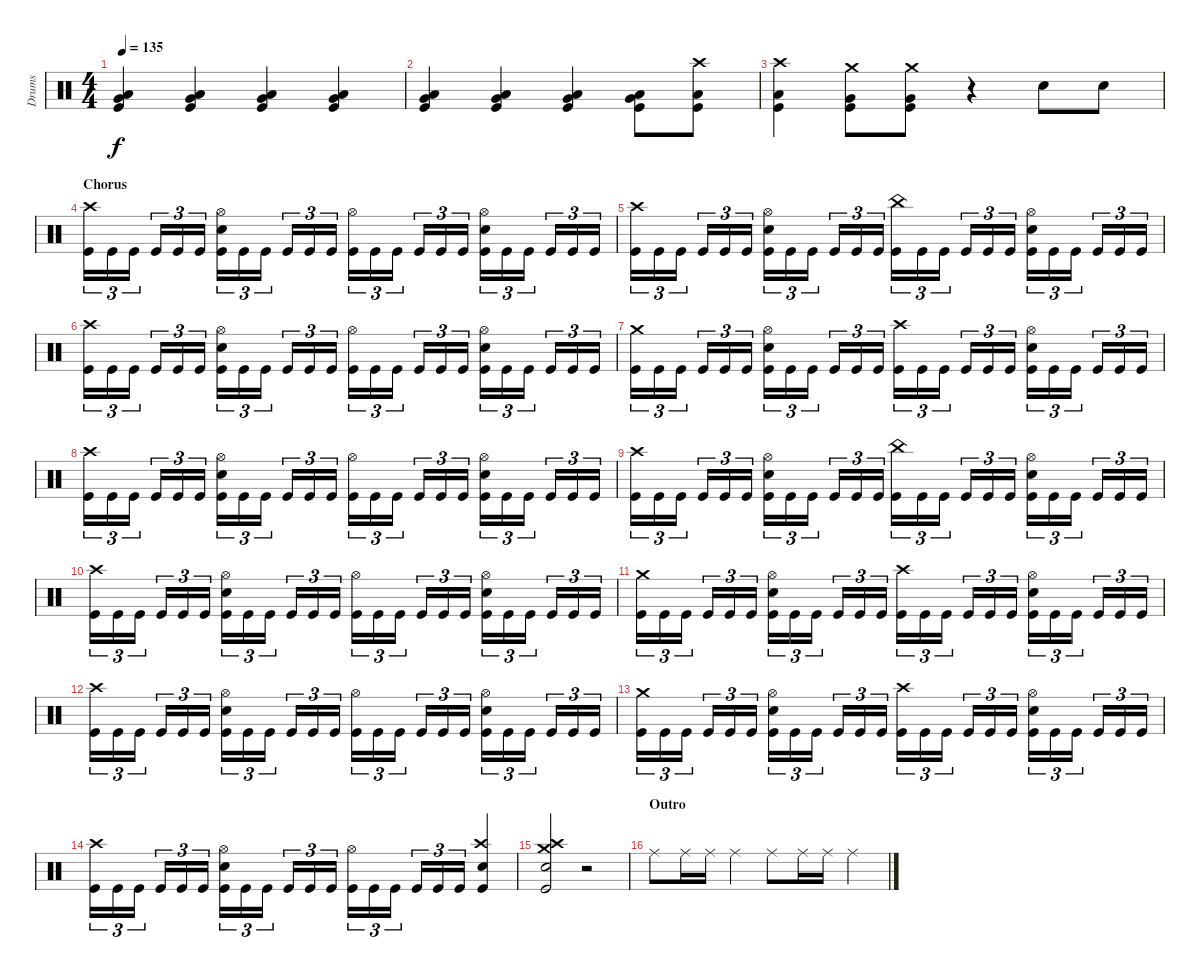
\track ("Drums" "Drums") {instrument percussion}
\staff {score}
\articulation defaults
\ts (4 4)
\tempo 135
\clef neutral
\ks c
("Low Floor Tom (hit)" "Very Low Tom (hit)" "Kick (hit)").4{dy f} ("Low Floor Tom (hit)" "Very Low Tom (hit)" "Kick (hit)").4 ("Low Floor Tom (hit)" "Very Low Tom (hit)" "Kick (hit)").4 ("Low Floor Tom (hit)" "Very Low Tom (hit)" "Kick (hit)").4 |
("Low Floor Tom (hit)" "Very Low Tom (hit)" "Kick (hit)").4 ("Low Floor Tom (hit)" "Very Low Tom (hit)" "Kick (hit)").4 ("Low Floor Tom (hit)" "Very Low Tom (hit)" "Kick (hit)").4 ("Low Floor Tom (hit)" "Very Low Tom (hit)" "Kick (hit)").8 ("Crash high (hit)" "Low Floor Tom (hit)" "Kick (hit)").8 |
("Crash high (hit)" "Low Floor Tom (hit)" "Kick (hit)").4 ("Crash medium (hit)" "Very Low Tom (hit)" "Kick (hit)").8 ("Crash medium (hit)" "Very Low Tom (hit)" "Kick (hit)").8 r.4 "Snare (hit) 2".8 "Snare (hit) 2".8 |
\section ("" "Chorus")
("Crash high (hit)" "Kick (hit)").16{tu (3 2)} "Kick (hit)".16{tu (3 2)} "Kick (hit)".16{tu (3 2)} "Kick (hit)".16{tu (3 2)} "Kick (hit)".16{tu (3 2)} "Kick (hit)".16{tu (3 2)} ("Hi-Hat (open)" "Snare (hit) 2" "Kick (hit)").16{tu (3 2)} "Kick (hit)".16{tu (3 2)} "Kick (hit)".16{tu (3 2)} "Kick (hit)".16{tu (3 2)} "Kick (hit)".16{tu (3 2)} "Kick (hit)".16{tu (3 2)} ("Hi-Hat (open)" "Kick (hit)").16{tu (3 2)} "Kick (hit)".16{tu (3 2)} "Kick (hit)".16{tu (3 2)} "Kick (hit)".16{tu (3 2)} "Kick (hit)".16{tu (3 2)} "Kick (hit)".16{tu (3 2)} ("Hi-Hat (open)" "Snare (hit) 2" "Kick (hit)").16{tu (3 2)} "Kick (hit)".16{tu (3 2)} "Kick (hit)".16{tu (3 2)} "Kick (hit)".16{tu (3 2)} "Kick (hit)".16{tu (3 2)} "Kick (hit)".16{tu (3 2)} |
("Crash high (hit)" "Kick (hit)").16{tu (3 2)} "Kick (hit)".16{tu (3 2)} "Kick (hit)".16{tu (3 2)} "Kick (hit)".16{tu (3 2)} "Kick (hit)".16{tu (3 2)} "Kick (hit)".16{tu (3 2)} ("Hi-Hat (open)" "Snare (hit) 2" "Kick (hit)").16{tu (3 2)} "Kick (hit)".16{tu (3 2)} "Kick (hit)".16{tu (3 2)} "Kick (hit)".16{tu (3 2)} "Kick (hit)".16{tu (3 2)} "Kick (hit)".16{tu (3 2)} ("China (hit)" "Kick (hit)").16{tu (3 2)} "Kick (hit)".16{tu (3 2)} "Kick (hit)".16{tu (3 2)} "Kick (hit)".16{tu (3 2)} "Kick (hit)".16{tu (3 2)} "Kick (hit)".16{tu (3 2)} ("Hi-Hat (open)" "Snare (hit) 2" "Kick (hit)").16{tu (3 2)} "Kick (hit)".16{tu (3 2)} "Kick (hit)".16{tu (3 2)} "Kick (hit)".16{tu (3 2)} "Kick (hit)".16{tu (3 2)} "Kick (hit)".16{tu (3 2)} |
("Crash high (hit)" "Kick (hit)").16{tu (3 2)} "Kick (hit)".16{tu (3 2)} "Kick (hit)".16{tu (3 2)} "Kick (hit)".16{tu (3 2)} "Kick (hit)".16{tu (3 2)} "Kick (hit)".16{tu (3 2)} ("Hi-Hat (open)" "Snare (hit) 2" "Kick (hit)").16{tu (3 2)} "Kick (hit)".16{tu (3 2)} "Kick (hit)".16{tu (3 2)} "Kick (hit)".16{tu (3 2)} "Kick (hit)".16{tu (3 2)} "Kick (hit)".16{tu (3 2)} ("Hi-Hat (open)" "Kick (hit)").16{tu (3 2)} "Kick (hit)".16{tu (3 2)} "Kick (hit)".16{tu (3 2)} "Kick (hit)".16{tu (3 2)} "Kick (hit)".16{tu (3 2)} "Kick (hit)".16{tu (3 2)} ("Hi-Hat (open)" "Snare (hit) 2" "Kick (hit)").16{tu (3 2)} "Kick (hit)".16{tu (3 2)} "Kick (hit)".16{tu (3 2)} "Kick (hit)".16{tu (3 2)} "Kick (hit)".16{tu (3 2)} "Kick (hit)".16{tu (3 2)} |
("Crash medium (hit)" "Kick (hit)").16{tu (3 2)} "Kick (hit)".16{tu (3 2)} "Kick (hit)".16{tu (3 2)} "Kick (hit)".16{tu (3 2)} "Kick (hit)".16{tu (3 2)} "Kick (hit)".16{tu (3 2)} ("Hi-Hat (open)" "Snare (hit) 2" "Kick (hit)").16{tu (3 2)} "Kick (hit)".16{tu (3 2)} "Kick (hit)".16{tu (3 2)} "Kick (hit)".16{tu (3 2)} "Kick (hit)".16{tu (3 2)} "Kick (hit)".16{tu (3 2)} ("Crash high (hit)" "Kick (hit)").16{tu (3 2)} "Kick (hit)".16{tu (3 2)} "Kick (hit)".16{tu (3 2)} "Kick (hit)".16{tu (3 2)} "Kick (hit)".16{tu (3 2)} "Kick (hit)".16{tu (3 2)} ("Hi-Hat (open)" "Snare (hit) 2" "Kick (hit)").16{tu (3 2)} "Kick (hit)".16{tu (3 2)} "Kick (hit)".16{tu (3 2)} "Kick (hit)".16{tu (3 2)} "Kick (hit)".16{tu (3 2)} "Kick (hit)".16{tu (3 2)} |
("Crash high (hit)" "Kick (hit)").16{tu (3 2)} "Kick (hit)".16{tu (3 2)} "Kick (hit)".16{tu (3 2)} "Kick (hit)".16{tu (3 2)} "Kick (hit)".16{tu (3 2)} "Kick (hit)".16{tu (3 2)} ("Hi-Hat (open)" "Snare (hit) 2" "Kick (hit)").16{tu (3 2)} "Kick (hit)".16{tu (3 2)} "Kick (hit)".16{tu (3 2)} "Kick (hit)".16{tu (3 2)} "Kick (hit)".16{tu (3 2)} "Kick (hit)".16{tu (3 2)} ("Hi-Hat (open)" "Kick (hit)").16{tu (3 2)} "Kick (hit)".16{tu (3 2)} "Kick (hit)".16{tu (3 2)} "Kick (hit)".16{tu (3 2)} "Kick (hit)".16{tu (3 2)} "Kick (hit)".16{tu (3 2)} ("Hi-Hat (open)" "Snare (hit) 2" "Kick (hit)").16{tu (3 2)} "Kick (hit)".16{tu (3 2)} "Kick (hit)".16{tu (3 2)} "Kick (hit)".16{tu (3 2)} "Kick (hit)".16{tu (3 2)} "Kick (hit)".16{tu (3 2)} |
("Crash high (hit)" "Kick (hit)").16{tu (3 2)} "Kick (hit)".16{tu (3 2)} "Kick (hit)".16{tu (3 2)} "Kick (hit)".16{tu (3 2)} "Kick (hit)".16{tu (3 2)} "Kick (hit)".16{tu (3 2)} ("Hi-Hat (open)" "Snare (hit) 2" "Kick (hit)").16{tu (3 2)} "Kick (hit)".16{tu (3 2)} "Kick (hit)".16{tu (3 2)} "Kick (hit)".16{tu (3 2)} "Kick (hit)".16{tu (3 2)} "Kick (hit)".16{tu (3 2)} ("China (hit)" "Kick (hit)").16{tu (3 2)} "Kick (hit)".16{tu (3 2)} "Kick (hit)".16{tu (3 2)} "Kick (hit)".16{tu (3 2)} "Kick (hit)".16{tu (3 2)} "Kick (hit)".16{tu (3 2)} ("Hi-Hat (open)" "Snare (hit) 2" "Kick (hit)").16{tu (3 2)} "Kick (hit)".16{tu (3 2)} "Kick (hit)".16{tu (3 2)} "Kick (hit)".16{tu (3 2)} "Kick (hit)".16{tu (3 2)} "Kick (hit)".16{tu (3 2)} |
("Crash high (hit)" "Kick (hit)").16{tu (3 2)} "Kick (hit)".16{tu (3 2)} "Kick (hit)".16{tu (3 2)} "Kick (hit)".16{tu (3 2)} "Kick (hit)".16{tu (3 2)} "Kick (hit)".16{tu (3 2)} ("Hi-Hat (open)" "Snare (hit) 2" "Kick (hit)").16{tu (3 2)} "Kick (hit)".16{tu (3 2)} "Kick (hit)".16{tu (3 2)} "Kick (hit)".16{tu (3 2)} "Kick (hit)".16{tu (3 2)} "Kick (hit)".16{tu (3 2)} ("Hi-Hat (open)" "Kick (hit)").16{tu (3 2)} "Kick (hit)".16{tu (3 2)} "Kick (hit)".16{tu (3 2)} "Kick (hit)".16{tu (3 2)} "Kick (hit)".16{tu (3 2)} "Kick (hit)".16{tu (3 2)} ("Hi-Hat (open)" "Snare (hit) 2" "Kick (hit)").16{tu (3 2)} "Kick (hit)".16{tu (3 2)} "Kick (hit)".16{tu (3 2)} "Kick (hit)".16{tu (3 2)} "Kick (hit)".16{tu (3 2)} "Kick (hit)".16{tu (3 2)} |
("Crash medium (hit)" "Kick (hit)").16{tu (3 2)} "Kick (hit)".16{tu (3 2)} "Kick (hit)".16{tu (3 2)} "Kick (hit)".16{tu (3 2)} "Kick (hit)".16{tu (3 2)} "Kick (hit)".16{tu (3 2)} ("Hi-Hat (open)" "Snare (hit) 2" "Kick (hit)").16{tu (3 2)} "Kick (hit)".16{tu (3 2)} "Kick (hit)".16{tu (3 2)} "Kick (hit)".16{tu (3 2)} "Kick (hit)".16{tu (3 2)} "Kick (hit)".16{tu (3 2)} ("Crash high (hit)" "Kick (hit)").16{tu (3 2)} "Kick (hit)".16{tu (3 2)} "Kick (hit)".16{tu (3 2)} "Kick (hit)".16{tu (3 2)} "Kick (hit)".16{tu (3 2)} "Kick (hit)".16{tu (3 2)} ("Hi-Hat (open)" "Snare (hit) 2" "Kick (hit)").16{tu (3 2)} "Kick (hit)".16{tu (3 2)} "Kick (hit)".16{tu (3 2)} "Kick (hit)".16{tu (3 2)} "Kick (hit)".16{tu (3 2)} "Kick (hit)".16{tu (3 2)} |
("Crash high (hit)" "Kick (hit)").16{tu (3 2)} "Kick (hit)".16{tu (3 2)} "Kick (hit)".16{tu (3 2)} "Kick (hit)".16{tu (3 2)} "Kick (hit)".16{tu (3 2)} "Kick (hit)".16{tu (3 2)} ("Hi-Hat (open)" "Snare (hit) 2" "Kick (hit)").16{tu (3 2)} "Kick (hit)".16{tu (3 2)} "Kick (hit)".16{tu (3 2)} "Kick (hit)".16{tu (3 2)} "Kick (hit)".16{tu (3 2)} "Kick (hit)".16{tu (3 2)} ("Hi-Hat (open)" "Kick (hit)").16{tu (3 2)} "Kick (hit)".16{tu (3 2)} "Kick (hit)".16{tu (3 2)} "Kick (hit)".16{tu (3 2)} "Kick (hit)".16{tu (3 2)} "Kick (hit)".16{tu (3 2)} ("Hi-Hat (open)" "Snare (hit) 2" "Kick (hit)").16{tu (3 2)} "Kick (hit)".16{tu (3 2)} "Kick (hit)".16{tu (3 2)} "Kick (hit)".16{tu (3 2)} "Kick (hit)".16{tu (3 2)} "Kick (hit)".16{tu (3 2)} |
("Crash medium (hit)" "Kick (hit)").16{tu (3 2)} "Kick (hit)".16{tu (3 2)} "Kick (hit)".16{tu (3 2)} "Kick (hit)".16{tu (3 2)} "Kick (hit)".16{tu (3 2)} "Kick (hit)".16{tu (3 2)} ("Hi-Hat (open)" "Snare (hit) 2" "Kick (hit)").16{tu (3 2)} "Kick (hit)".16{tu (3 2)} "Kick (hit)".16{tu (3 2)} "Kick (hit)".16{tu (3 2)} "Kick (hit)".16{tu (3 2)} "Kick (hit)".16{tu (3 2)} ("Crash high (hit)" "Kick (hit)").16{tu (3 2)} "Kick (hit)".16{tu (3 2)} "Kick (hit)".16{tu (3 2)} "Kick (hit)".16{tu (3 2)} "Kick (hit)".16{tu (3 2)} "Kick (hit)".16{tu (3 2)} ("Hi-Hat (open)" "Snare (hit) 2" "Kick (hit)").16{tu (3 2)} "Kick (hit)".16{tu (3 2)} "Kick (hit)".16{tu (3 2)} "Kick (hit)".16{tu (3 2)} "Kick (hit)".16{tu (3 2)} "Kick (hit)".16{tu (3 2)} |
("Crash high (hit)" "Kick (hit)").16{tu (3 2)} "Kick (hit)".16{tu (3 2)} "Kick (hit)".16{tu (3 2)} "Kick (hit)".16{tu (3 2)} "Kick (hit)".16{tu (3 2)} "Kick (hit)".16{tu (3 2)} ("Hi-Hat (open)" "Snare (hit) 2" "Kick (hit)").16{tu (3 2)} "Kick (hit)".16{tu (3 2)} "Kick (hit)".16{tu (3 2)} "Kick (hit)".16{tu (3 2)} "Kick (hit)".16{tu (3 2)} "Kick (hit)".16{tu (3 2)} ("Hi-Hat (open)" "Kick (hit)").16{tu (3 2)} "Kick (hit)".16{tu (3 2)} "Kick (hit)".16{tu (3 2)} "Kick (hit)".16{tu (3 2)} "Kick (hit)".16{tu (3 2)} "Kick (hit)".16{tu (3 2)} ("Crash high (hit)" "Snare (hit) 2" "Kick (hit)").4 |
("Crash high (hit)" "Crash medium (hit)" "Snare (hit) 2" "Kick (hit)").2 r.2 |
\section ("" "Outro")
"Ride (middle)".8 "Ride (middle)".16 "Ride (middle)".16 "Ride (middle)".4 "Ride (middle)".8 "Ride (middle)".16 "Ride (middle)".16 "Ride (middle)".4
